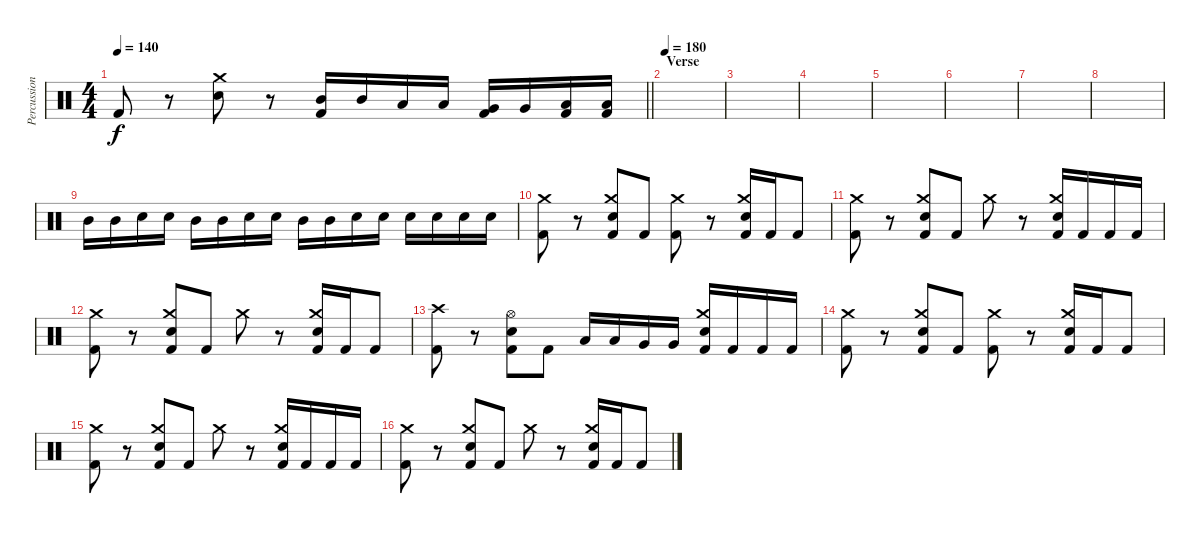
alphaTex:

\track ("Percussion" "Percussion") {instrument percussion}
\staff {score}
\articulation defaults
\ts (4 4)
\tempo 140
\clef neutral
\barLineRight lightlight
\ks c "Kick (hit) 2".8{dy f}
r.8 ("Crash medium (hit)" "Electric Snare (hit)").8 r.8 ("Mid Tom (hit)" "Kick (hit) 2").16 "Mid Tom (hit)".16 "Low Tom (hit)".16 "Low Tom (hit)".16 ("Very Low Tom (hit)" "Kick (hit) 2").16 "Very Low Tom (hit)".16 ("Low Floor Tom (hit)" "Kick (hit) 2").16 ("Low Floor Tom (hit)" "Kick (hit) 2").16 |
\section ("" "Verse")
\tempo 180
|
|
|
|
|
|
|
"Mid Tom (hit)".16 "Mid Tom (hit)".16 "Electric Snare (hit)".16 "Electric Snare (hit)".16 "Mid Tom (hit)".16 "Mid Tom (hit)".16 "Electric Snare (hit)".16 "Electric Snare (hit)".16 "Mid Tom (hit)".16 "Mid Tom (hit)".16 "Electric Snare (hit)".16 "Electric Snare (hit)".16 "Electric Snare (hit)".16 "Electric Snare (hit)".16 "Electric Snare (hit)".16 "Electric Snare (hit)".16 |
("Crash medium (hit)" "Kick (hit) 2").8 r.8 ("Crash medium (hit)" "Electric Snare (hit)" "Kick (hit) 2").8 "Kick (hit) 2".8 ("Crash medium (hit)" "Kick (hit) 2").8 r.8 ("Crash medium (hit)" "Electric Snare (hit)" "Kick (hit) 2").16 "Kick (hit) 2".16 "Kick (hit) 2".8 |
("Crash medium (hit)" "Kick (hit) 2").8 r.8 ("Crash medium (hit)" "Electric Snare (hit)" "Kick (hit) 2").8 "Kick (hit) 2".8 "Crash medium (hit)".8 r.8 ("Crash medium (hit)" "Electric Snare (hit)" "Kick (hit) 2").16 "Kick (hit) 2".16 "Kick (hit) 2".16 "Kick (hit) 2".16 |
("Crash medium (hit)" "Kick (hit) 2").8 r.8 ("Crash medium (hit)" "Electric Snare (hit)" "Kick (hit) 2").8 "Kick (hit) 2".8 "Crash medium (hit)".8 r.8 ("Crash medium (hit)" "Electric Snare (hit)" "Kick (hit) 2").16 "Kick (hit) 2".16 "Kick (hit) 2".8 |
("Crash high (hit)" "Kick (hit) 2").8 r.8 ("Hi-Hat (open)" "Electric Snare (hit)" "Kick (hit) 2").8 "Kick (hit) 2".8 "Low Tom (hit)".16 "Low Tom (hit)".16 "Very Low Tom (hit)".16 "Very Low Tom (hit)".16 ("Crash medium (hit)" "Electric Snare (hit)" "Kick (hit) 2").16 "Kick (hit) 2".16 "Kick (hit) 2".16 "Kick (hit) 2".16 |
("Crash medium (hit)" "Kick (hit) 2").8 r.8 ("Crash medium (hit)" "Electric Snare (hit)" "Kick (hit) 2").8 "Kick (hit) 2".8 ("Crash medium (hit)" "Kick (hit) 2").8 r.8 ("Crash medium (hit)" "Electric Snare (hit)" "Kick (hit) 2").16 "Kick (hit) 2".16 "Kick (hit) 2".8 |
("Crash medium (hit)" "Kick (hit) 2").8 r.8 ("Crash medium (hit)" "Electric Snare (hit)" "Kick (hit) 2").8 "Kick (hit) 2".8 "Crash medium (hit)".8 r.8 ("Crash medium (hit)" "Electric Snare (hit)" "Kick (hit) 2").16 "Kick (hit) 2".16 "Kick (hit) 2".16 "Kick (hit) 2".16 |
("Crash medium (hit)" "Kick (hit) 2").8 r.8 ("Crash medium (hit)" "Electric Snare (hit)" "Kick (hit) 2").8 "Kick (hit) 2".8 "Crash medium (hit)".8 r.8 ("Crash medium (hit)" "Electric Snare (hit)" "Kick (hit) 2").16 "Kick (hit) 2".16 "Kick (hit) 2".8
